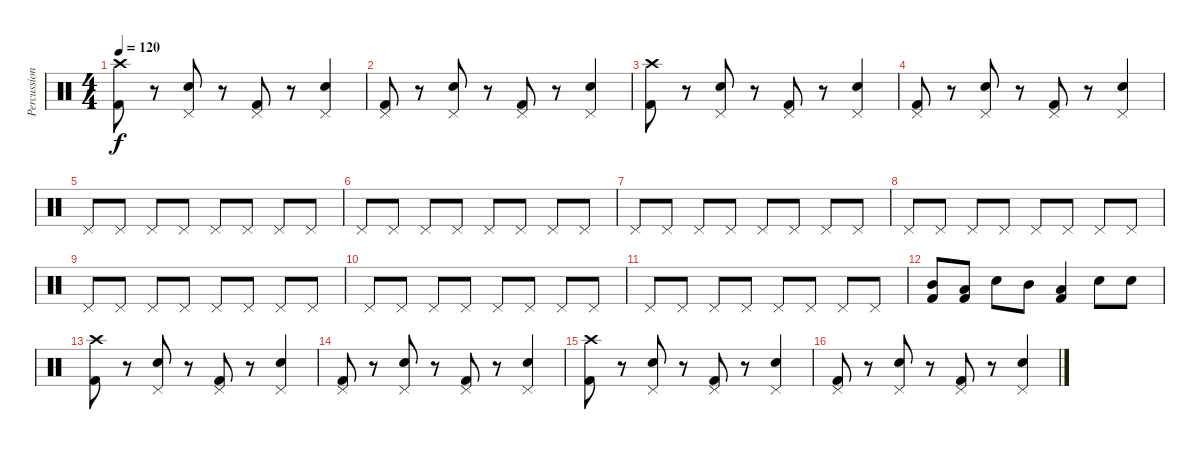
\track ("Percussions" "Percussion") {instrument percussion}
\staff {score}
\articulation defaults
\ts (4 4)
\tempo 120
\clef neutral
\ks c
("Crash high (hit)" "Kick (hit) 2").8{dy f} r.8 ("Pedal Hi-Hat (hit)" "Snare (hit) 2").8 r.8 ("Pedal Hi-Hat (hit)" "Kick (hit) 2").8 r.8 ("Pedal Hi-Hat (hit)" "Snare (hit) 2").4 |
("Pedal Hi-Hat (hit)" "Kick (hit) 2").8 r.8 ("Pedal Hi-Hat (hit)" "Snare (hit) 2").8 r.8 ("Pedal Hi-Hat (hit)" "Kick (hit) 2").8 r.8 ("Pedal Hi-Hat (hit)" "Snare (hit) 2").4 |
("Crash high (hit)" "Kick (hit) 2").8 r.8 ("Pedal Hi-Hat (hit)" "Snare (hit) 2").8 r.8 ("Pedal Hi-Hat (hit)" "Kick (hit) 2").8 r.8 ("Pedal Hi-Hat (hit)" "Snare (hit) 2").4 |
("Pedal Hi-Hat (hit)" "Kick (hit) 2").8 r.8 ("Pedal Hi-Hat (hit)" "Snare (hit) 2").8 r.8 ("Pedal Hi-Hat (hit)" "Kick (hit) 2").8 r.8 ("Pedal Hi-Hat (hit)" "Snare (hit) 2").4 |
"Pedal Hi-Hat (hit)".8 "Pedal Hi-Hat (hit)".8 "Pedal Hi-Hat (hit)".8 "Pedal Hi-Hat (hit)".8 "Pedal Hi-Hat (hit)".8 "Pedal Hi-Hat (hit)".8 "Pedal Hi-Hat (hit)".8 "Pedal Hi-Hat (hit)".8 |
"Pedal Hi-Hat (hit)".8 "Pedal Hi-Hat (hit)".8 "Pedal Hi-Hat (hit)".8 "Pedal Hi-Hat (hit)".8 "Pedal Hi-Hat (hit)".8 "Pedal Hi-Hat (hit)".8 "Pedal Hi-Hat (hit)".8 "Pedal Hi-Hat (hit)".8 |
"Pedal Hi-Hat (hit)".8 "Pedal Hi-Hat (hit)".8 "Pedal Hi-Hat (hit)".8 "Pedal Hi-Hat (hit)".8 "Pedal Hi-Hat (hit)".8 "Pedal Hi-Hat (hit)".8 "Pedal Hi-Hat (hit)".8 "Pedal Hi-Hat (hit)".8 |
"Pedal Hi-Hat (hit)".8 "Pedal Hi-Hat (hit)".8 "Pedal Hi-Hat (hit)".8 "Pedal Hi-Hat (hit)".8 "Pedal Hi-Hat (hit)".8 "Pedal Hi-Hat (hit)".8 "Pedal Hi-Hat (hit)".8 "Pedal Hi-Hat (hit)".8 |
"Pedal Hi-Hat (hit)".8 "Pedal Hi-Hat (hit)".8 "Pedal Hi-Hat (hit)".8 "Pedal Hi-Hat (hit)".8 "Pedal Hi-Hat (hit)".8 "Pedal Hi-Hat (hit)".8 "Pedal Hi-Hat (hit)".8 "Pedal Hi-Hat (hit)".8 |
"Pedal Hi-Hat (hit)".8 "Pedal Hi-Hat (hit)".8 "Pedal Hi-Hat (hit)".8 "Pedal Hi-Hat (hit)".8 "Pedal Hi-Hat (hit)".8 "Pedal Hi-Hat (hit)".8 "Pedal Hi-Hat (hit)".8 "Pedal Hi-Hat (hit)".8 |
"Pedal Hi-Hat (hit)".8 "Pedal Hi-Hat (hit)".8 "Pedal Hi-Hat (hit)".8 "Pedal Hi-Hat (hit)".8 "Pedal Hi-Hat (hit)".8 "Pedal Hi-Hat (hit)".8 "Pedal Hi-Hat (hit)".8 "Pedal Hi-Hat (hit)".8 |
("Mid Tom (hit)" "Kick (hit) 2").8 ("Low Tom (hit)" "Kick (hit) 2").8 "Snare (hit) 2".8 "Mid Tom (hit)".8 ("Low Tom (hit)" "Kick (hit) 2").4 "Snare (hit) 2".8 "Snare (hit) 2".8 |
("Crash high (hit)" "Kick (hit) 2").8 r.8 ("Pedal Hi-Hat (hit)" "Snare (hit) 2").8 r.8 ("Pedal Hi-Hat (hit)" "Kick (hit) 2").8 r.8 ("Pedal Hi-Hat (hit)" "Snare (hit) 2").4 |
("Pedal Hi-Hat (hit)" "Kick (hit) 2").8 r.8 ("Pedal Hi-Hat (hit)" "Snare (hit) 2").8 r.8 ("Pedal Hi-Hat (hit)" "Kick (hit) 2").8 r.8 ("Pedal Hi-Hat (hit)" "Snare (hit) 2").4 |
("Crash high (hit)" "Kick (hit) 2").8 r.8 ("Pedal Hi-Hat (hit)" "Snare (hit) 2").8 r.8 ("Pedal Hi-Hat (hit)" "Kick (hit) 2").8 r.8 ("Pedal Hi-Hat (hit)" "Snare (hit) 2").4 |
("Pedal Hi-Hat (hit)" "Kick (hit) 2").8 r.8 ("Pedal Hi-Hat (hit)" "Snare (hit) 2").8 r.8 ("Pedal Hi-Hat (hit)" "Kick (hit) 2").8 r.8 ("Pedal Hi-Hat (hit)" "Snare (hit) 2").4
